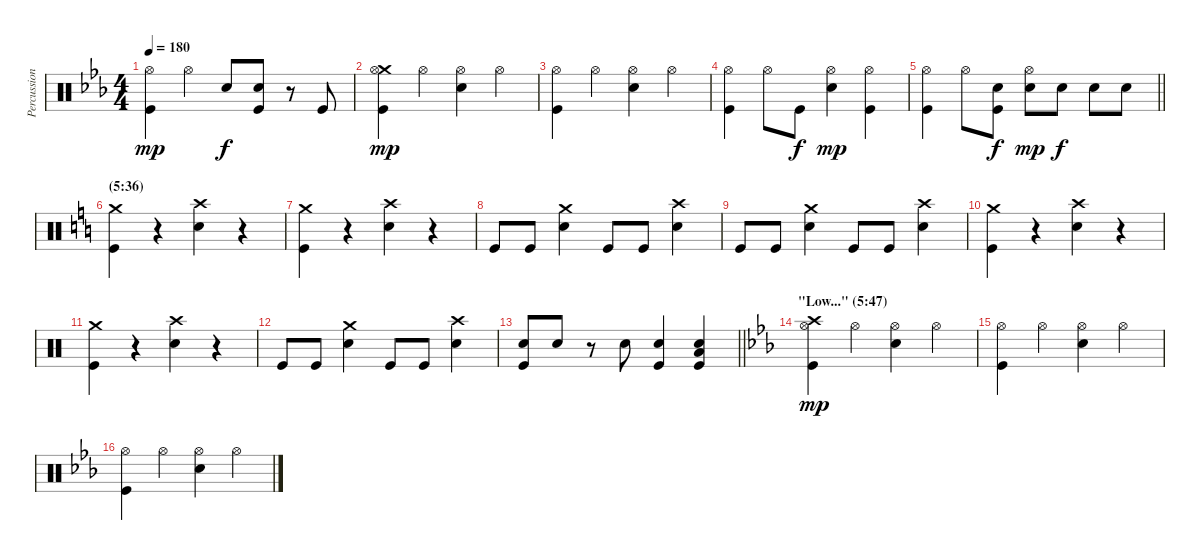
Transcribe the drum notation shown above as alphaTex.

\track ("Percussion" "Percussion") {instrument percussion}
\staff {score}
\articulation defaults
\ts (4 4)
\tempo 180
\clef neutral
\ks cminor
("Hi-Hat (open)" "Kick (hit)").4{dy mp} "Hi-Hat (open)".4 "Snare (hit) 2".8{dy f} ("Snare (hit) 2" "Kick (hit)").8 r.8 "Kick (hit)".8 |
("Crash medium (hit)" "Hi-Hat (open)" "Kick (hit)").4{dy mp} "Hi-Hat (open)".4 ("Hi-Hat (open)" "Snare (hit) 2").4 "Hi-Hat (open)".4 |
("Hi-Hat (open)" "Kick (hit)").4 "Hi-Hat (open)".4 ("Hi-Hat (open)" "Snare (hit) 2").4 "Hi-Hat (open)".4 |
("Hi-Hat (open)" "Kick (hit)").4 "Hi-Hat (open)".8 "Kick (hit)".8{dy f} ("Hi-Hat (open)" "Snare (hit) 2").4{dy mp} ("Hi-Hat (open)" "Kick (hit)").4 |
\barLineRight lightlight
("Hi-Hat (open)" "Kick (hit)").4 "Hi-Hat (open)".8 ("Snare (hit) 2" "Kick (hit)").8{dy f} ("Hi-Hat (open)" "Snare (hit) 2").8{dy mp} "Snare (hit) 2".8{dy f} "Snare (hit) 2".8 "Snare (hit) 2".8 |
\section ("" "(5:36)")
\ks c
("Crash medium (hit)" "Kick (hit)").4 r.4 ("Crash high (hit)" "Snare (hit) 2").4 r.4 |
("Crash medium (hit)" "Kick (hit)").4 r.4 ("Crash high (hit)" "Snare (hit) 2").4 r.4 |
"Kick (hit)".8 "Kick (hit)".8 ("Crash medium (hit)" "Snare (hit) 2").4 "Kick (hit)".8 "Kick (hit)".8 ("Crash high (hit)" "Snare (hit) 2").4 |
"Kick (hit)".8 "Kick (hit)".8 ("Crash medium (hit)" "Snare (hit) 2").4 "Kick (hit)".8 "Kick (hit)".8 ("Crash high (hit)" "Snare (hit) 2").4 |
("Crash medium (hit)" "Kick (hit)").4 r.4 ("Crash high (hit)" "Snare (hit) 2").4 r.4 |
("Crash medium (hit)" "Kick (hit)").4 r.4 ("Crash high (hit)" "Snare (hit) 2").4 r.4 |
"Kick (hit)".8 "Kick (hit)".8 ("Crash medium (hit)" "Snare (hit) 2").4 "Kick (hit)".8 "Kick (hit)".8 ("Crash high (hit)" "Snare (hit) 2").4 |
\barLineRight lightlight
("Snare (hit) 2" "Kick (hit)").8 "Snare (hit) 2".8 r.8 "Snare (hit) 2".8 ("Snare (hit) 2" "Kick (hit)").4 ("Low Floor Tom (hit)" "Snare (hit) 2" "Kick (hit)").4 |
\section ("" "\"Low...\" (5:47)")
\ks cminor
("Crash high (hit)" "Hi-Hat (open)" "Kick (hit)").4{dy mp} "Hi-Hat (open)".4 ("Hi-Hat (open)" "Snare (hit) 2").4 "Hi-Hat (open)".4 |
("Hi-Hat (open)" "Kick (hit)").4 "Hi-Hat (open)".4 ("Hi-Hat (open)" "Snare (hit) 2").4 "Hi-Hat (open)".4 |
("Hi-Hat (open)" "Kick (hit)").4 "Hi-Hat (open)".4 ("Hi-Hat (open)" "Snare (hit) 2").4 "Hi-Hat (open)".4
